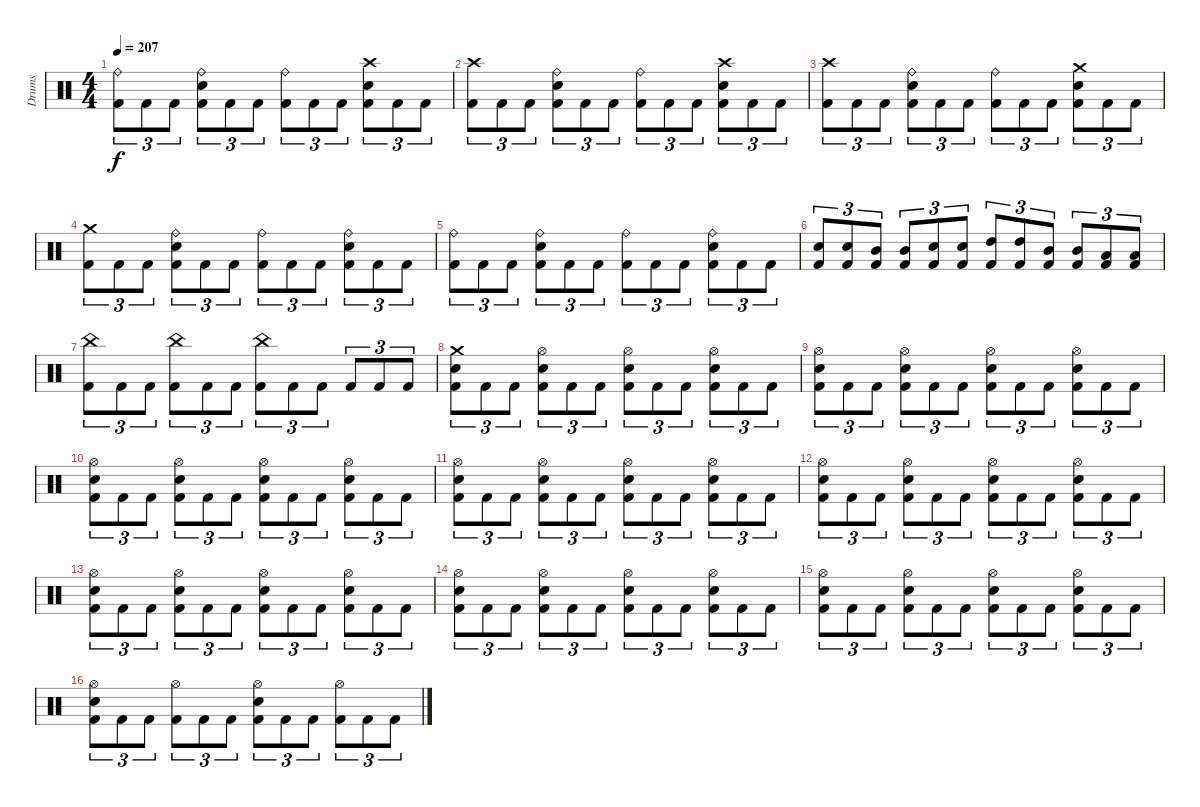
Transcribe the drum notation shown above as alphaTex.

\track ("Drums" "Drums") {instrument percussion}
\staff {score}
\articulation defaults
\ts (4 4)
\tempo 207
\clef neutral
\ks c
("Ride (bell)" "Kick (hit) 2").8{tu (3 2) dy f} "Kick (hit) 2".8{tu (3 2)} "Kick (hit) 2".8{tu (3 2)} ("Ride (bell)" "Electric Snare (hit)" "Kick (hit) 2").8{tu (3 2)} "Kick (hit) 2".8{tu (3 2)} "Kick (hit) 2".8{tu (3 2)} ("Ride (bell)" "Kick (hit) 2").8{tu (3 2)} "Kick (hit) 2".8{tu (3 2)} "Kick (hit) 2".8{tu (3 2)} ("Crash high (hit)" "Electric Snare (hit)" "Kick (hit) 2").8{tu (3 2)} "Kick (hit) 2".8{tu (3 2)} "Kick (hit) 2".8{tu (3 2)} |
("Crash high (hit)" "Kick (hit) 2").8{tu (3 2)} "Kick (hit) 2".8{tu (3 2)} "Kick (hit) 2".8{tu (3 2)} ("Ride (bell)" "Electric Snare (hit)" "Kick (hit) 2").8{tu (3 2)} "Kick (hit) 2".8{tu (3 2)} "Kick (hit) 2".8{tu (3 2)} ("Ride (bell)" "Kick (hit) 2").8{tu (3 2)} "Kick (hit) 2".8{tu (3 2)} "Kick (hit) 2".8{tu (3 2)} ("Crash high (hit)" "Electric Snare (hit)" "Kick (hit) 2").8{tu (3 2)} "Kick (hit) 2".8{tu (3 2)} "Kick (hit) 2".8{tu (3 2)} |
("Crash high (hit)" "Kick (hit) 2").8{tu (3 2)} "Kick (hit) 2".8{tu (3 2)} "Kick (hit) 2".8{tu (3 2)} ("Ride (bell)" "Electric Snare (hit)" "Kick (hit) 2").8{tu (3 2)} "Kick (hit) 2".8{tu (3 2)} "Kick (hit) 2".8{tu (3 2)} ("Ride (bell)" "Kick (hit) 2").8{tu (3 2)} "Kick (hit) 2".8{tu (3 2)} "Kick (hit) 2".8{tu (3 2)} ("Crash medium (hit)" "Electric Snare (hit)" "Kick (hit) 2").8{tu (3 2)} "Kick (hit) 2".8{tu (3 2)} "Kick (hit) 2".8{tu (3 2)} |
("Crash medium (hit)" "Kick (hit) 2").8{tu (3 2)} "Kick (hit) 2".8{tu (3 2)} "Kick (hit) 2".8{tu (3 2)} ("Ride (bell)" "Electric Snare (hit)" "Kick (hit) 2").8{tu (3 2)} "Kick (hit) 2".8{tu (3 2)} "Kick (hit) 2".8{tu (3 2)} ("Ride (bell)" "Kick (hit) 2").8{tu (3 2)} "Kick (hit) 2".8{tu (3 2)} "Kick (hit) 2".8{tu (3 2)} ("Ride (bell)" "Electric Snare (hit)" "Kick (hit) 2").8{tu (3 2)} "Kick (hit) 2".8{tu (3 2)} "Kick (hit) 2".8{tu (3 2)} |
("Ride (bell)" "Kick (hit) 2").8{tu (3 2)} "Kick (hit) 2".8{tu (3 2)} "Kick (hit) 2".8{tu (3 2)} ("Ride (bell)" "Electric Snare (hit)" "Kick (hit) 2").8{tu (3 2)} "Kick (hit) 2".8{tu (3 2)} "Kick (hit) 2".8{tu (3 2)} ("Ride (bell)" "Kick (hit) 2").8{tu (3 2)} "Kick (hit) 2".8{tu (3 2)} "Kick (hit) 2".8{tu (3 2)} ("Ride (bell)" "Electric Snare (hit)" "Kick (hit) 2").8{tu (3 2)} "Kick (hit) 2".8{tu (3 2)} "Kick (hit) 2".8{tu (3 2)} |
("Electric Snare (hit)" "Kick (hit) 2").8{tu (3 2)} ("Electric Snare (hit)" "Kick (hit) 2").8{tu (3 2)} ("Mid Tom (hit)" "Kick (hit) 2").8{tu (3 2)} ("Mid Tom (hit)" "Kick (hit) 2").8{tu (3 2)} ("Electric Snare (hit)" "Kick (hit) 2").8{tu (3 2)} ("Electric Snare (hit)" "Kick (hit) 2").8{tu (3 2)} ("High Tom (hit)" "Kick (hit) 2").8{tu (3 2)} ("High Tom (hit)" "Kick (hit) 2").8{tu (3 2)} ("Mid Tom (hit)" "Kick (hit) 2").8{tu (3 2)} ("Mid Tom (hit)" "Kick (hit) 2").8{tu (3 2)} ("Low Tom (hit)" "Kick (hit) 2").8{tu (3 2)} ("Low Tom (hit)" "Kick (hit) 2").8{tu (3 2)} |
("China (hit)" "Kick (hit) 2").8{tu (3 2)} "Kick (hit) 2".8{tu (3 2)} "Kick (hit) 2".8{tu (3 2)} ("China (hit)" "Kick (hit) 2").8{tu (3 2)} "Kick (hit) 2".8{tu (3 2)} "Kick (hit) 2".8{tu (3 2)} ("China (hit)" "Kick (hit) 2").8{tu (3 2)} "Kick (hit) 2".8{tu (3 2)} "Kick (hit) 2".8{tu (3 2)} "Kick (hit) 2".8{tu (3 2)} "Kick (hit) 2".8{tu (3 2)} "Kick (hit) 2".8{tu (3 2)} |
("Crash medium (hit)" "Electric Snare (hit)" "Kick (hit) 2").8{tu (3 2)} "Kick (hit) 2".8{tu (3 2)} "Kick (hit) 2".8{tu (3 2)} ("Hi-Hat (open)" "Electric Snare (hit)" "Kick (hit) 2").8{tu (3 2)} "Kick (hit) 2".8{tu (3 2)} "Kick (hit) 2".8{tu (3 2)} ("Hi-Hat (open)" "Electric Snare (hit)" "Kick (hit) 2").8{tu (3 2)} "Kick (hit) 2".8{tu (3 2)} "Kick (hit) 2".8{tu (3 2)} ("Hi-Hat (open)" "Electric Snare (hit)" "Kick (hit) 2").8{tu (3 2)} "Kick (hit) 2".8{tu (3 2)} "Kick (hit) 2".8{tu (3 2)} |
("Hi-Hat (open)" "Electric Snare (hit)" "Kick (hit) 2").8{tu (3 2)} "Kick (hit) 2".8{tu (3 2)} "Kick (hit) 2".8{tu (3 2)} ("Hi-Hat (open)" "Electric Snare (hit)" "Kick (hit) 2").8{tu (3 2)} "Kick (hit) 2".8{tu (3 2)} "Kick (hit) 2".8{tu (3 2)} ("Hi-Hat (open)" "Electric Snare (hit)" "Kick (hit) 2").8{tu (3 2)} "Kick (hit) 2".8{tu (3 2)} "Kick (hit) 2".8{tu (3 2)} ("Hi-Hat (open)" "Electric Snare (hit)" "Kick (hit) 2").8{tu (3 2)} "Kick (hit) 2".8{tu (3 2)} "Kick (hit) 2".8{tu (3 2)} |
("Hi-Hat (open)" "Electric Snare (hit)" "Kick (hit) 2").8{tu (3 2)} "Kick (hit) 2".8{tu (3 2)} "Kick (hit) 2".8{tu (3 2)} ("Hi-Hat (open)" "Electric Snare (hit)" "Kick (hit) 2").8{tu (3 2)} "Kick (hit) 2".8{tu (3 2)} "Kick (hit) 2".8{tu (3 2)} ("Hi-Hat (open)" "Electric Snare (hit)" "Kick (hit) 2").8{tu (3 2)} "Kick (hit) 2".8{tu (3 2)} "Kick (hit) 2".8{tu (3 2)} ("Hi-Hat (open)" "Electric Snare (hit)" "Kick (hit) 2").8{tu (3 2)} "Kick (hit) 2".8{tu (3 2)} "Kick (hit) 2".8{tu (3 2)} |
("Hi-Hat (open)" "Electric Snare (hit)" "Kick (hit) 2").8{tu (3 2)} "Kick (hit) 2".8{tu (3 2)} "Kick (hit) 2".8{tu (3 2)} ("Hi-Hat (open)" "Electric Snare (hit)" "Kick (hit) 2").8{tu (3 2)} "Kick (hit) 2".8{tu (3 2)} "Kick (hit) 2".8{tu (3 2)} ("Hi-Hat (open)" "Electric Snare (hit)" "Kick (hit) 2").8{tu (3 2)} "Kick (hit) 2".8{tu (3 2)} "Kick (hit) 2".8{tu (3 2)} ("Hi-Hat (open)" "Electric Snare (hit)" "Kick (hit) 2").8{tu (3 2)} "Kick (hit) 2".8{tu (3 2)} "Kick (hit) 2".8{tu (3 2)} |
("Hi-Hat (open)" "Electric Snare (hit)" "Kick (hit) 2").8{tu (3 2)} "Kick (hit) 2".8{tu (3 2)} "Kick (hit) 2".8{tu (3 2)} ("Hi-Hat (open)" "Electric Snare (hit)" "Kick (hit) 2").8{tu (3 2)} "Kick (hit) 2".8{tu (3 2)} "Kick (hit) 2".8{tu (3 2)} ("Hi-Hat (open)" "Electric Snare (hit)" "Kick (hit) 2").8{tu (3 2)} "Kick (hit) 2".8{tu (3 2)} "Kick (hit) 2".8{tu (3 2)} ("Hi-Hat (open)" "Electric Snare (hit)" "Kick (hit) 2").8{tu (3 2)} "Kick (hit) 2".8{tu (3 2)} "Kick (hit) 2".8{tu (3 2)} |
("Hi-Hat (open)" "Electric Snare (hit)" "Kick (hit) 2").8{tu (3 2)} "Kick (hit) 2".8{tu (3 2)} "Kick (hit) 2".8{tu (3 2)} ("Hi-Hat (open)" "Electric Snare (hit)" "Kick (hit) 2").8{tu (3 2)} "Kick (hit) 2".8{tu (3 2)} "Kick (hit) 2".8{tu (3 2)} ("Hi-Hat (open)" "Electric Snare (hit)" "Kick (hit) 2").8{tu (3 2)} "Kick (hit) 2".8{tu (3 2)} "Kick (hit) 2".8{tu (3 2)} ("Hi-Hat (open)" "Electric Snare (hit)" "Kick (hit) 2").8{tu (3 2)} "Kick (hit) 2".8{tu (3 2)} "Kick (hit) 2".8{tu (3 2)} |
("Hi-Hat (open)" "Electric Snare (hit)" "Kick (hit) 2").8{tu (3 2)} "Kick (hit) 2".8{tu (3 2)} "Kick (hit) 2".8{tu (3 2)} ("Hi-Hat (open)" "Electric Snare (hit)" "Kick (hit) 2").8{tu (3 2)} "Kick (hit) 2".8{tu (3 2)} "Kick (hit) 2".8{tu (3 2)} ("Hi-Hat (open)" "Electric Snare (hit)" "Kick (hit) 2").8{tu (3 2)} "Kick (hit) 2".8{tu (3 2)} "Kick (hit) 2".8{tu (3 2)} ("Hi-Hat (open)" "Electric Snare (hit)" "Kick (hit) 2").8{tu (3 2)} "Kick (hit) 2".8{tu (3 2)} "Kick (hit) 2".8{tu (3 2)} |
("Hi-Hat (open)" "Electric Snare (hit)" "Kick (hit) 2").8{tu (3 2)} "Kick (hit) 2".8{tu (3 2)} "Kick (hit) 2".8{tu (3 2)} ("Hi-Hat (open)" "Electric Snare (hit)" "Kick (hit) 2").8{tu (3 2)} "Kick (hit) 2".8{tu (3 2)} "Kick (hit) 2".8{tu (3 2)} ("Hi-Hat (open)" "Electric Snare (hit)" "Kick (hit) 2").8{tu (3 2)} "Kick (hit) 2".8{tu (3 2)} "Kick (hit) 2".8{tu (3 2)} ("Hi-Hat (open)" "Electric Snare (hit)" "Kick (hit) 2").8{tu (3 2)} "Kick (hit) 2".8{tu (3 2)} "Kick (hit) 2".8{tu (3 2)} |
("Hi-Hat (open)" "Electric Snare (hit)" "Kick (hit) 2").8{tu (3 2)} "Kick (hit) 2".8{tu (3 2)} "Kick (hit) 2".8{tu (3 2)} ("Hi-Hat (open)" "Kick (hit) 2").8{tu (3 2)} "Kick (hit) 2".8{tu (3 2)} "Kick (hit) 2".8{tu (3 2)} ("Hi-Hat (open)" "Electric Snare (hit)" "Kick (hit) 2").8{tu (3 2)} "Kick (hit) 2".8{tu (3 2)} "Kick (hit) 2".8{tu (3 2)} ("Hi-Hat (open)" "Kick (hit) 2").8{tu (3 2)} "Kick (hit) 2".8{tu (3 2)} "Kick (hit) 2".8{tu (3 2)}
